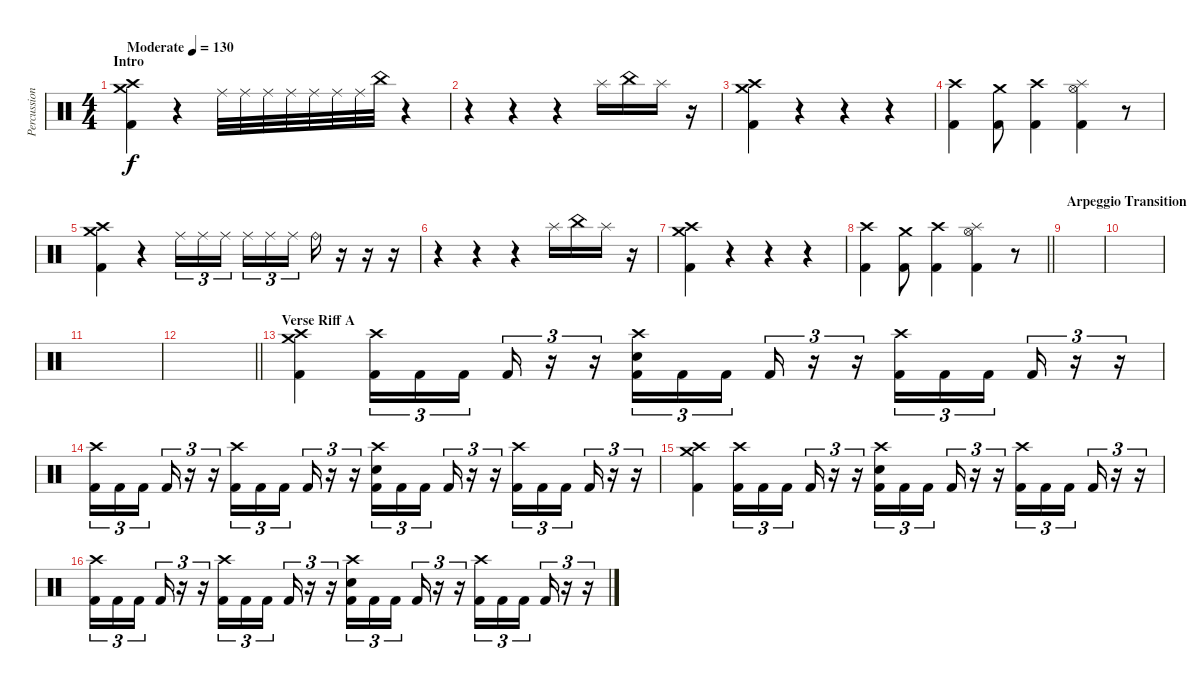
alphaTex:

\track ("Percussion" "Percussion") {instrument percussion}
\staff {score}
\articulation defaults
\ts (4 4)
\section ("" "Intro")
\tempo (130 "Moderate")
\clef neutral
\ks c
("Crash high (hit)" "Crash medium (hit)" "Kick (hit) 2").4{dy f} r.4 "Ride (middle)".32 "Ride (middle)".32 "Ride (middle)".32 "Ride (middle)".32 "Ride (middle)".32 "Ride (middle)".32 "Ride (middle)".32 "China (hit)".32 r.4 |
r.4 r.4 r.4 "Splash (hit)".16 "China (hit)".16 "Splash (hit)".16 r.16 |
("Crash high (hit)" "Crash medium (hit)" "Kick (hit) 2").4 r.4 r.4 r.4 |
("Crash high (hit)" "Kick (hit) 2").4 ("Crash medium (hit)" "Kick (hit) 2").8 ("Crash high (hit)" "Kick (hit) 2").4 ("Splash (hit)" "Hi-Hat (open)" "Kick (hit) 2").4 r.8 |
("Crash high (hit)" "Crash medium (hit)" "Kick (hit) 2").4 r.4 "Ride (middle)".16{tu (3 2)} "Ride (middle)".16{tu (3 2)} "Ride (middle)".16{tu (3 2) beam splitsecondary} "Ride (middle)".16{tu (3 2)} "Ride (middle)".16{tu (3 2)} "Ride (middle)".16{tu (3 2)} "Ride (bell)".16 r.16 r.16 r.16 |
r.4 r.4 r.4 "Splash (hit)".16 "China (hit)".16 "Splash (hit)".16 r.16 |
("Crash high (hit)" "Crash medium (hit)" "Kick (hit) 2").4 r.4 r.4 r.4 |
\barLineRight lightlight
("Crash high (hit)" "Kick (hit) 2").4 ("Crash medium (hit)" "Kick (hit) 2").8 ("Crash high (hit)" "Kick (hit) 2").4 ("Splash (hit)" "Hi-Hat (open)" "Kick (hit) 2").4 r.8 |
\section ("" "Arpeggio Transition")
|
|
|
\barLineRight lightlight
|
\section ("" "Verse Riff A")
("Crash high (hit)" "Crash medium (hit)" "Kick (hit) 2").4 ("Crash high (hit)" "Kick (hit) 2").16{tu (3 2)} "Kick (hit) 2".16{tu (3 2)} "Kick (hit) 2".16{tu (3 2) beam splitsecondary} "Kick (hit) 2".16{tu (3 2)} r.16{tu (3 2)} r.16{tu (3 2)} ("Crash high (hit)" "Electric Snare (hit)" "Kick (hit) 2").16{tu (3 2)} "Kick (hit) 2".16{tu (3 2)} "Kick (hit) 2".16{tu (3 2) beam splitsecondary} "Kick (hit) 2".16{tu (3 2)} r.16{tu (3 2)} r.16{tu (3 2)} ("Crash high (hit)" "Kick (hit) 2").16{tu (3 2)} "Kick (hit) 2".16{tu (3 2)} "Kick (hit) 2".16{tu (3 2) beam splitsecondary} "Kick (hit) 2".16{tu (3 2)} r.16{tu (3 2)} r.16{tu (3 2)} |
("Crash high (hit)" "Kick (hit) 2").16{tu (3 2)} "Kick (hit) 2".16{tu (3 2)} "Kick (hit) 2".16{tu (3 2) beam splitsecondary} "Kick (hit) 2".16{tu (3 2)} r.16{tu (3 2)} r.16{tu (3 2)} ("Crash high (hit)" "Kick (hit) 2").16{tu (3 2)} "Kick (hit) 2".16{tu (3 2)} "Kick (hit) 2".16{tu (3 2) beam splitsecondary} "Kick (hit) 2".16{tu (3 2)} r.16{tu (3 2)} r.16{tu (3 2)} ("Crash high (hit)" "Electric Snare (hit)" "Kick (hit) 2").16{tu (3 2)} "Kick (hit) 2".16{tu (3 2)} "Kick (hit) 2".16{tu (3 2) beam splitsecondary} "Kick (hit) 2".16{tu (3 2)} r.16{tu (3 2)} r.16{tu (3 2)} ("Crash high (hit)" "Kick (hit) 2").16{tu (3 2)} "Kick (hit) 2".16{tu (3 2)} "Kick (hit) 2".16{tu (3 2) beam splitsecondary} "Kick (hit) 2".16{tu (3 2)} r.16{tu (3 2)} r.16{tu (3 2)} |
("Crash high (hit)" "Crash medium (hit)" "Kick (hit) 2").4 ("Crash high (hit)" "Kick (hit) 2").16{tu (3 2)} "Kick (hit) 2".16{tu (3 2)} "Kick (hit) 2".16{tu (3 2) beam splitsecondary} "Kick (hit) 2".16{tu (3 2)} r.16{tu (3 2)} r.16{tu (3 2)} ("Crash high (hit)" "Electric Snare (hit)" "Kick (hit) 2").16{tu (3 2)} "Kick (hit) 2".16{tu (3 2)} "Kick (hit) 2".16{tu (3 2) beam splitsecondary} "Kick (hit) 2".16{tu (3 2)} r.16{tu (3 2)} r.16{tu (3 2)} ("Crash high (hit)" "Kick (hit) 2").16{tu (3 2)} "Kick (hit) 2".16{tu (3 2)} "Kick (hit) 2".16{tu (3 2) beam splitsecondary} "Kick (hit) 2".16{tu (3 2)} r.16{tu (3 2)} r.16{tu (3 2)} |
("Crash high (hit)" "Kick (hit) 2").16{tu (3 2)} "Kick (hit) 2".16{tu (3 2)} "Kick (hit) 2".16{tu (3 2) beam splitsecondary} "Kick (hit) 2".16{tu (3 2)} r.16{tu (3 2)} r.16{tu (3 2)} ("Crash high (hit)" "Kick (hit) 2").16{tu (3 2)} "Kick (hit) 2".16{tu (3 2)} "Kick (hit) 2".16{tu (3 2) beam splitsecondary} "Kick (hit) 2".16{tu (3 2)} r.16{tu (3 2)} r.16{tu (3 2)} ("Crash high (hit)" "Electric Snare (hit)" "Kick (hit) 2").16{tu (3 2)} "Kick (hit) 2".16{tu (3 2)} "Kick (hit) 2".16{tu (3 2) beam splitsecondary} "Kick (hit) 2".16{tu (3 2)} r.16{tu (3 2)} r.16{tu (3 2)} ("Crash high (hit)" "Kick (hit) 2").16{tu (3 2)} "Kick (hit) 2".16{tu (3 2)} "Kick (hit) 2".16{tu (3 2) beam splitsecondary} "Kick (hit) 2".16{tu (3 2)} r.16{tu (3 2)} r.16{tu (3 2)}
